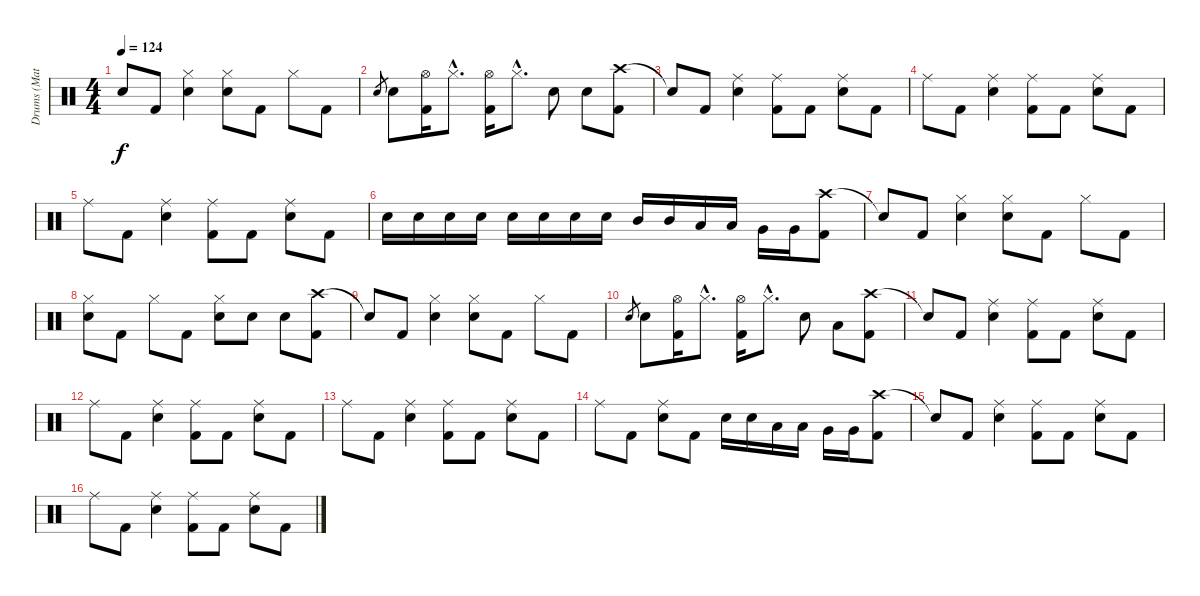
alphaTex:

\track ("Drums (Matt)" "Drums (Mat") {instrument percussion}
\staff {score}
\articulation defaults
\ts (4 4)
\tempo 124
\clef neutral
\ks c "Snare (hit)"{t}.8{dy f} "Kick (hit) 2".8
("Hi-Hat (closed)" "Snare (hit) 2").4 ("Hi-Hat (closed)" "Snare (hit) 2").8 "Kick (hit) 2".8 "Hi-Hat (closed)".8 "Kick (hit) 2".8 |
"Snare (hit) 2".8{gr} "Snare (hit) 2".8 ("Hi-Hat (open)" "Kick (hit) 2").16 "Hi-Hat (closed)"{hac}.8{d} ("Hi-Hat (open)" "Kick (hit) 2").16 "Hi-Hat (closed)"{hac}.8{d} "Snare (hit) 2".8 "Snare (hit) 2".8 ("Crash high (hit)" "Kick (hit) 2").8 |
"Snare (hit)"{t}.8 "Kick (hit) 2".8 ("Ride (middle)" "Snare (hit) 2").4 ("Ride (middle)" "Kick (hit) 2").8 "Kick (hit) 2".8 ("Ride (middle)" "Snare (hit) 2").8 "Kick (hit) 2".8 |
"Ride (middle)".8 "Kick (hit) 2".8 ("Ride (middle)" "Snare (hit) 2").4 ("Ride (middle)" "Kick (hit) 2").8 "Kick (hit) 2".8 ("Ride (middle)" "Snare (hit) 2").8 "Kick (hit) 2".8 |
"Ride (middle)".8 "Kick (hit) 2".8 ("Ride (middle)" "Snare (hit) 2").4 ("Ride (middle)" "Kick (hit) 2").8 "Kick (hit) 2".8 ("Ride (middle)" "Snare (hit) 2").8 "Kick (hit) 2".8 |
"Snare (hit) 2".16 "Snare (hit) 2".16 "Snare (hit) 2".16 "Snare (hit) 2".16 "Snare (hit) 2".16 "Snare (hit) 2".16 "Snare (hit) 2".16 "Snare (hit) 2".16 "Mid Tom (hit)".16 "Mid Tom (hit)".16 "Low Tom (hit)".16 "Low Tom (hit)".16 "Very Low Tom (hit)".16 "Very Low Tom (hit)".16 ("Crash high (hit)" "Kick (hit) 2").8 |
"Snare (hit)"{t}.8 "Kick (hit) 2".8 ("Hi-Hat (closed)" "Snare (hit) 2").4 ("Hi-Hat (closed)" "Snare (hit) 2").8 "Kick (hit) 2".8 "Hi-Hat (closed)".8 "Kick (hit) 2".8 |
("Hi-Hat (closed)" "Snare (hit) 2").8 "Kick (hit) 2".8 "Hi-Hat (closed)".8 "Kick (hit) 2".8 ("Hi-Hat (closed)" "Snare (hit) 2").8 "Snare (hit) 2".8 "Snare (hit) 2".8 ("Crash high (hit)" "Kick (hit) 2").8 |
"Snare (hit)"{t}.8 "Kick (hit) 2".8 ("Hi-Hat (closed)" "Snare (hit) 2").4 ("Hi-Hat (closed)" "Snare (hit) 2").8 "Kick (hit) 2".8 "Hi-Hat (closed)".8 "Kick (hit) 2".8 |
"Snare (hit) 2".8{gr} "Snare (hit) 2".8 ("Hi-Hat (open)" "Kick (hit) 2").16 "Hi-Hat (closed)"{hac}.8{d} ("Hi-Hat (open)" "Kick (hit) 2").16 "Hi-Hat (closed)"{hac}.8{d} "Snare (hit) 2".8 "Low Tom (hit)".8 ("Crash high (hit)" "Kick (hit) 2").8 |
"Snare (hit)"{t}.8 "Kick (hit) 2".8 ("Ride (middle)" "Snare (hit) 2").4 ("Ride (middle)" "Kick (hit) 2").8 "Kick (hit) 2".8 ("Ride (middle)" "Snare (hit) 2").8 "Kick (hit) 2".8 |
"Ride (middle)".8 "Kick (hit) 2".8 ("Ride (middle)" "Snare (hit) 2").4 ("Ride (middle)" "Kick (hit) 2").8 "Kick (hit) 2".8 ("Ride (middle)" "Snare (hit) 2").8 "Kick (hit) 2".8 |
"Ride (middle)".8 "Kick (hit) 2".8 ("Ride (middle)" "Snare (hit) 2").4 ("Ride (middle)" "Kick (hit) 2").8 "Kick (hit) 2".8 ("Ride (middle)" "Snare (hit) 2").8 "Kick (hit) 2".8 |
"Ride (middle)".8 "Kick (hit) 2".8 ("Ride (middle)" "Snare (hit) 2").8 "Kick (hit) 2".8 "Snare (hit) 2".16 "Snare (hit) 2".16 "Low Tom (hit)".16 "Low Tom (hit)".16 "Very Low Tom (hit)".16 "Very Low Tom (hit)".16 ("Crash high (hit)" "Kick (hit) 2").8 |
"Snare (hit)"{t}.8 "Kick (hit) 2".8 ("Ride (middle)" "Snare (hit) 2").4 ("Ride (middle)" "Kick (hit) 2").8 "Kick (hit) 2".8 ("Ride (middle)" "Snare (hit) 2").8 "Kick (hit) 2".8 |
"Ride (middle)".8 "Kick (hit) 2".8 ("Ride (middle)" "Snare (hit) 2").4 ("Ride (middle)" "Kick (hit) 2").8 "Kick (hit) 2".8 ("Ride (middle)" "Snare (hit) 2").8 "Kick (hit) 2".8
